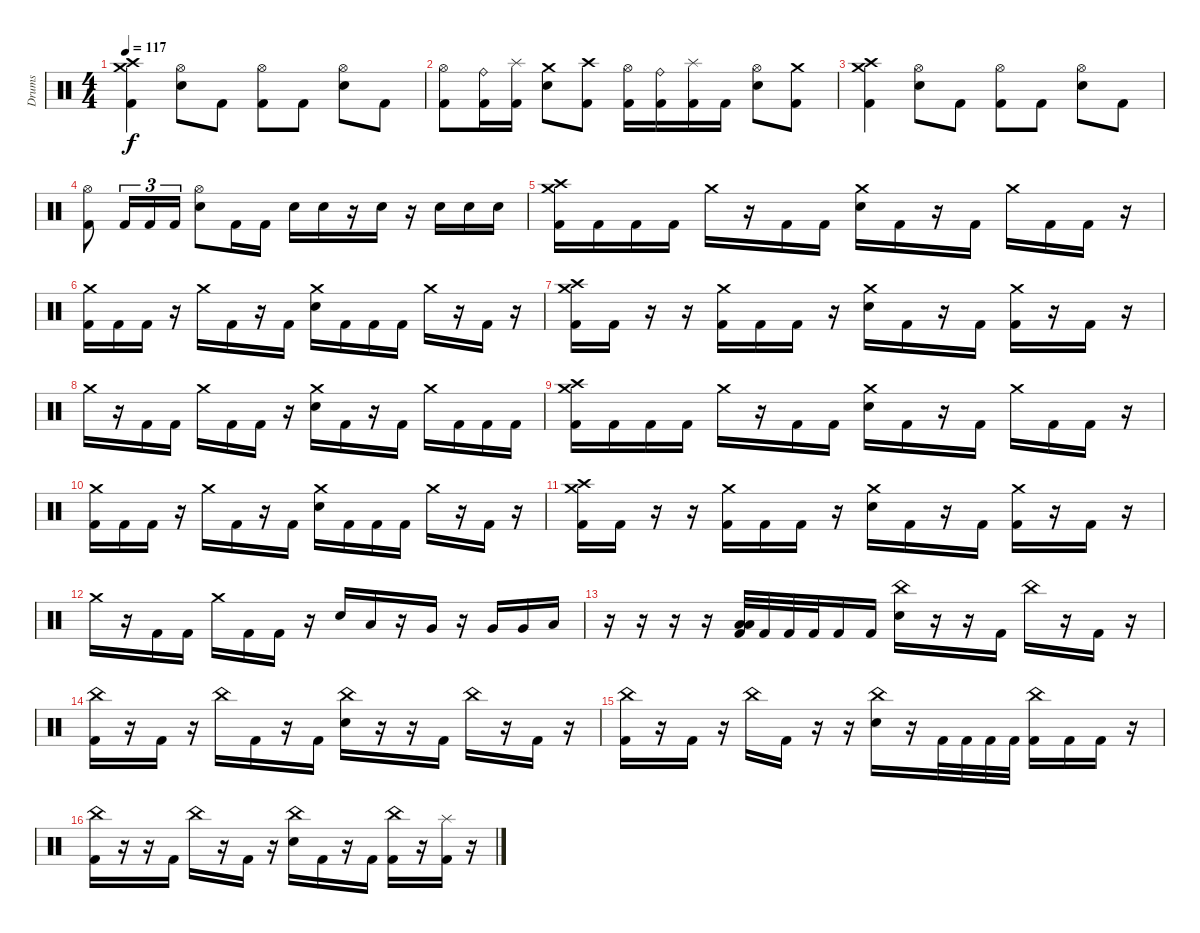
\track ("Drums" "Drums") {instrument percussion}
\staff {score}
\articulation defaults
\ts (4 4)
\tempo 117
\clef neutral
\ks c
("Crash high (hit)" "Crash medium (hit)" "Kick (hit) 2").4{dy f} ("Hi-Hat (open)" "Snare (hit) 2").8 "Kick (hit) 2".8 ("Hi-Hat (open)" "Kick (hit) 2").8 "Kick (hit) 2".8 ("Hi-Hat (open)" "Snare (hit) 2").8 "Kick (hit) 2".8 |
("Hi-Hat (open)" "Kick (hit) 2").8 ("Ride (bell)" "Kick (hit) 2").16 ("Splash (hit)" "Kick (hit) 2").16 ("Crash medium (hit)" "Snare (hit) 2").8 ("Crash high (hit)" "Kick (hit) 2").8 ("Hi-Hat (open)" "Kick (hit) 2").16 ("Ride (bell)" "Kick (hit) 2").16 ("Splash (hit)" "Kick (hit) 2").16 "Kick (hit) 2".16 ("Hi-Hat (open)" "Snare (hit) 2").8 ("Crash medium (hit)" "Kick (hit) 2").8 |
("Crash high (hit)" "Crash medium (hit)" "Kick (hit) 2").4 ("Hi-Hat (open)" "Snare (hit) 2").8 "Kick (hit) 2".8 ("Hi-Hat (open)" "Kick (hit) 2").8 "Kick (hit) 2".8 ("Hi-Hat (open)" "Snare (hit) 2").8 "Kick (hit) 2".8 |
("Hi-Hat (open)" "Kick (hit) 2").8 "Kick (hit) 2".16{tu (3 2)} "Kick (hit) 2".16{tu (3 2)} "Kick (hit) 2".16{tu (3 2)} ("Hi-Hat (open)" "Snare (hit) 2").8 "Kick (hit) 2".16 "Kick (hit) 2".16 "Snare (hit) 2".16 "Snare (hit) 2".16 r.16 "Snare (hit) 2".16 r.16 "Snare (hit) 2".16 "Snare (hit) 2".16 "Snare (hit) 2".16 |
("Crash medium (hit)" "Crash high (hit)" "Kick (hit) 2").16 "Kick (hit) 2".16 "Kick (hit) 2".16 "Kick (hit) 2".16 "Crash medium (hit)".16 r.16 "Kick (hit) 2".16 "Kick (hit) 2".16 ("Crash medium (hit)" "Snare (hit) 2").16 "Kick (hit) 2".16 r.16 "Kick (hit) 2".16 "Crash medium (hit)".16 "Kick (hit) 2".16 "Kick (hit) 2".16 r.16 |
("Crash medium (hit)" "Kick (hit) 2").16 "Kick (hit) 2".16 "Kick (hit) 2".16 r.16 "Crash medium (hit)".16 "Kick (hit) 2".16 r.16 "Kick (hit) 2".16 ("Crash medium (hit)" "Snare (hit) 2").16 "Kick (hit) 2".16 "Kick (hit) 2".16 "Kick (hit) 2".16 "Crash medium (hit)".16 r.16 "Kick (hit) 2".16 r.16 |
("Crash medium (hit)" "Crash high (hit)" "Kick (hit) 2").16 "Kick (hit) 2".16 r.16 r.16 ("Crash medium (hit)" "Kick (hit) 2").16 "Kick (hit) 2".16 "Kick (hit) 2".16 r.16 ("Crash medium (hit)" "Snare (hit) 2").16 "Kick (hit) 2".16 r.16 "Kick (hit) 2".16 ("Crash medium (hit)" "Kick (hit) 2").16 r.16 "Kick (hit) 2".16 r.16 |
"Crash medium (hit)".16 r.16 "Kick (hit) 2".16 "Kick (hit) 2".16 "Crash medium (hit)".16 "Kick (hit) 2".16 "Kick (hit) 2".16 r.16 ("Crash medium (hit)" "Snare (hit) 2").16 "Kick (hit) 2".16 r.16 "Kick (hit) 2".16 "Crash medium (hit)".16 "Kick (hit) 2".16 "Kick (hit) 2".16 "Kick (hit) 2".16 |
("Crash medium (hit)" "Crash high (hit)" "Kick (hit) 2").16 "Kick (hit) 2".16 "Kick (hit) 2".16 "Kick (hit) 2".16 "Crash medium (hit)".16 r.16 "Kick (hit) 2".16 "Kick (hit) 2".16 ("Crash medium (hit)" "Snare (hit) 2").16 "Kick (hit) 2".16 r.16 "Kick (hit) 2".16 "Crash medium (hit)".16 "Kick (hit) 2".16 "Kick (hit) 2".16 r.16 |
("Crash medium (hit)" "Kick (hit) 2").16 "Kick (hit) 2".16 "Kick (hit) 2".16 r.16 "Crash medium (hit)".16 "Kick (hit) 2".16 r.16 "Kick (hit) 2".16 ("Crash medium (hit)" "Snare (hit) 2").16 "Kick (hit) 2".16 "Kick (hit) 2".16 "Kick (hit) 2".16 "Crash medium (hit)".16 r.16 "Kick (hit) 2".16 r.16 |
("Crash medium (hit)" "Crash high (hit)" "Kick (hit) 2").16 "Kick (hit) 2".16 r.16 r.16 ("Crash medium (hit)" "Kick (hit) 2").16 "Kick (hit) 2".16 "Kick (hit) 2".16 r.16 ("Crash medium (hit)" "Snare (hit) 2").16 "Kick (hit) 2".16 r.16 "Kick (hit) 2".16 ("Crash medium (hit)" "Kick (hit) 2").16 r.16 "Kick (hit) 2".16 r.16 |
"Crash medium (hit)".16 r.16 "Kick (hit) 2".16 "Kick (hit) 2".16 "Crash medium (hit)".16 "Kick (hit) 2".16 "Kick (hit) 2".16 r.16 "Snare (hit) 2".16 "Low Tom (hit)".16 r.16 "Very Low Tom (hit)".16 r.16 "Very Low Tom (hit)".16 "Very Low Tom (hit)".16 "Low Floor Tom (hit)".16 |
r.16 r.16 r.16 r.16 ("Low Tom (hit)" "Low Floor Tom (hit)" "Kick (hit) 2").32 "Kick (hit) 2".32 "Kick (hit) 2".32 "Kick (hit) 2".32 "Kick (hit) 2".16 "Kick (hit) 2".16 ("China (hit)" "Snare (hit) 2").16 r.16 r.16 "Kick (hit) 2".16 "China (hit)".16 r.16 "Kick (hit) 2".16 r.16 |
("China (hit)" "Kick (hit) 2").16 r.16 "Kick (hit) 2".16 r.16 "China (hit)".16 "Kick (hit) 2".16 r.16 "Kick (hit) 2".16 ("China (hit)" "Snare (hit) 2").16 r.16 r.16 "Kick (hit) 2".16 "China (hit)".16 r.16 "Kick (hit) 2".16 r.16 |
("China (hit)" "Kick (hit) 2").16 r.16 "Kick (hit) 2".16 r.16 "China (hit)".16 "Kick (hit) 2".16 r.16 r.16 ("China (hit)" "Snare (hit) 2").16 r.16 "Kick (hit) 2".32 "Kick (hit) 2".32 "Kick (hit) 2".32 "Kick (hit) 2".32 ("China (hit)" "Kick (hit) 2").16 "Kick (hit) 2".16 "Kick (hit) 2".16 r.16 |
("China (hit)" "Kick (hit) 2").16 r.16 r.16 "Kick (hit) 2".16 "China (hit)".16 r.16 "Kick (hit) 2".16 r.16 ("China (hit)" "Snare (hit) 2").16 "Kick (hit) 2".16 r.16 "Kick (hit) 2".16 ("China (hit)" "Kick (hit) 2").16 r.16 ("Splash (hit)" "Kick (hit) 2").16 r.16
